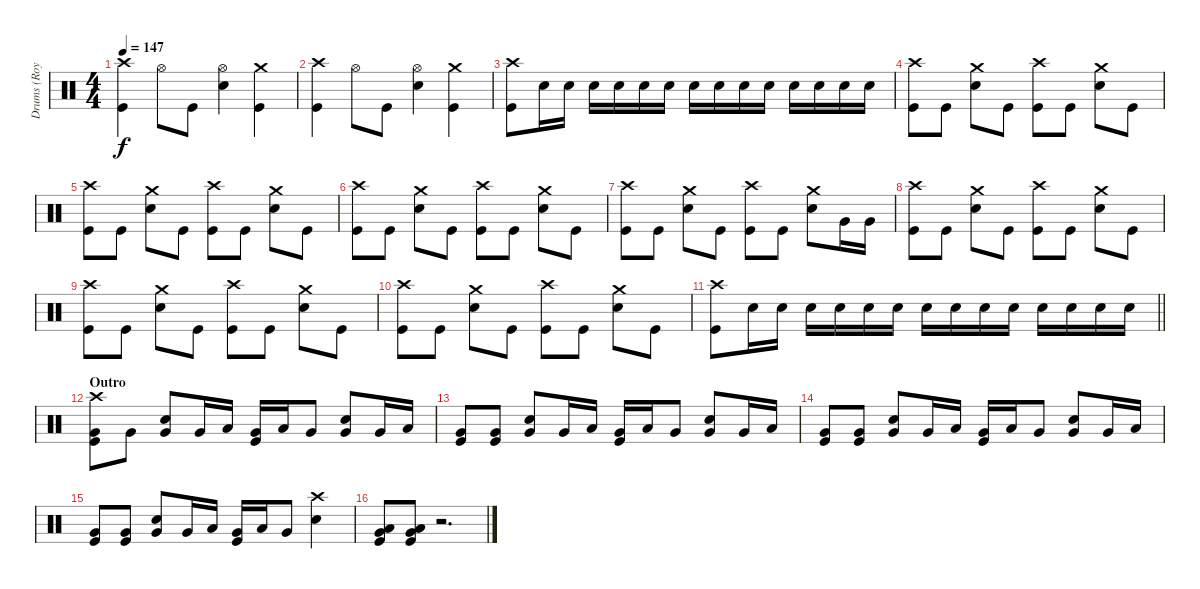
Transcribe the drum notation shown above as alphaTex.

\track ("Drums (Roy)" "Drums (Roy") {instrument percussion}
\staff {score}
\articulation defaults
\ts (4 4)
\tempo 147
\clef neutral
\ks c
("Crash high (hit)" "Kick (hit)").4{dy f} "Hi-Hat (open)".8 "Kick (hit)".8 ("Hi-Hat (open)" "Snare (hit) 2").4 ("Crash medium (hit)" "Kick (hit)").4 |
("Crash high (hit)" "Kick (hit)").4 "Hi-Hat (open)".8 "Kick (hit)".8 ("Hi-Hat (open)" "Snare (hit) 2").4 ("Crash medium (hit)" "Kick (hit)").4 |
("Crash high (hit)" "Kick (hit)").8 "Snare (hit) 2".16 "Snare (hit) 2".16 "Snare (hit) 2".16 "Snare (hit) 2".16 "Snare (hit) 2".16 "Snare (hit) 2".16 "Snare (hit) 2".16 "Snare (hit) 2".16 "Snare (hit) 2".16 "Snare (hit) 2".16 "Snare (hit) 2".16 "Snare (hit) 2".16 "Snare (hit) 2".16 "Snare (hit) 2".16 |
("Crash high (hit)" "Kick (hit)").8 "Kick (hit)".8 ("Crash medium (hit)" "Snare (hit) 2").8 "Kick (hit)".8 ("Crash high (hit)" "Kick (hit)").8 "Kick (hit)".8 ("Crash medium (hit)" "Snare (hit) 2").8 "Kick (hit)".8 |
("Crash high (hit)" "Kick (hit)").8 "Kick (hit)".8 ("Crash medium (hit)" "Snare (hit) 2").8 "Kick (hit)".8 ("Crash high (hit)" "Kick (hit)").8 "Kick (hit)".8 ("Crash medium (hit)" "Snare (hit) 2").8 "Kick (hit)".8 |
("Crash high (hit)" "Kick (hit)").8 "Kick (hit)".8 ("Crash medium (hit)" "Snare (hit) 2").8 "Kick (hit)".8 ("Crash high (hit)" "Kick (hit)").8 "Kick (hit)".8 ("Crash medium (hit)" "Snare (hit) 2").8 "Kick (hit)".8 |
("Crash high (hit)" "Kick (hit)").8 "Kick (hit)".8 ("Crash medium (hit)" "Snare (hit) 2").8 "Kick (hit)".8 ("Crash high (hit)" "Kick (hit)").8 "Kick (hit)".8 ("Crash medium (hit)" "Snare (hit) 2").8 "Very Low Tom (hit)".16 "Very Low Tom (hit)".16 |
("Crash high (hit)" "Kick (hit)").8 "Kick (hit)".8 ("Crash medium (hit)" "Snare (hit) 2").8 "Kick (hit)".8 ("Crash high (hit)" "Kick (hit)").8 "Kick (hit)".8 ("Crash medium (hit)" "Snare (hit) 2").8 "Kick (hit)".8 |
("Crash high (hit)" "Kick (hit)").8 "Kick (hit)".8 ("Crash medium (hit)" "Snare (hit) 2").8 "Kick (hit)".8 ("Crash high (hit)" "Kick (hit)").8 "Kick (hit)".8 ("Crash medium (hit)" "Snare (hit) 2").8 "Kick (hit)".8 |
("Crash high (hit)" "Kick (hit)").8 "Kick (hit)".8 ("Crash medium (hit)" "Snare (hit) 2").8 "Kick (hit)".8 ("Crash high (hit)" "Kick (hit)").8 "Kick (hit)".8 ("Crash medium (hit)" "Snare (hit) 2").8 "Kick (hit)".8 |
\barLineRight lightlight
("Crash high (hit)" "Kick (hit)").8 "Snare (hit) 2".16 "Snare (hit) 2".16 "Snare (hit) 2".16 "Snare (hit) 2".16 "Snare (hit) 2".16 "Snare (hit) 2".16 "Snare (hit) 2".16 "Snare (hit) 2".16 "Snare (hit) 2".16 "Snare (hit) 2".16 "Snare (hit) 2".16 "Snare (hit) 2".16 "Snare (hit) 2".16 "Snare (hit) 2".16 |
\section ("" "Outro")
("Crash high (hit)" "Very Low Tom (hit)" "Kick (hit)").8 "Very Low Tom (hit)".8 ("Very Low Tom (hit)" "Snare (hit) 2").8 "Very Low Tom (hit)".16 "Low Floor Tom (hit)".16 ("Very Low Tom (hit)" "Kick (hit)").16 "Low Floor Tom (hit)".16 "Very Low Tom (hit)".8 ("Very Low Tom (hit)" "Snare (hit) 2").8 "Very Low Tom (hit)".16 "Low Floor Tom (hit)".16 |
("Very Low Tom (hit)" "Kick (hit)").8 ("Very Low Tom (hit)" "Kick (hit)").8 ("Very Low Tom (hit)" "Snare (hit) 2").8 "Very Low Tom (hit)".16 "Low Floor Tom (hit)".16 ("Very Low Tom (hit)" "Kick (hit)").16 "Low Floor Tom (hit)".16 "Very Low Tom (hit)".8 ("Very Low Tom (hit)" "Snare (hit) 2").8 "Very Low Tom (hit)".16 "Low Floor Tom (hit)".16 |
("Very Low Tom (hit)" "Kick (hit)").8 ("Very Low Tom (hit)" "Kick (hit)").8 ("Very Low Tom (hit)" "Snare (hit) 2").8 "Very Low Tom (hit)".16 "Low Floor Tom (hit)".16 ("Very Low Tom (hit)" "Kick (hit)").16 "Low Floor Tom (hit)".16 "Very Low Tom (hit)".8 ("Very Low Tom (hit)" "Snare (hit) 2").8 "Very Low Tom (hit)".16 "Low Floor Tom (hit)".16 |
("Very Low Tom (hit)" "Kick (hit)").8 ("Very Low Tom (hit)" "Kick (hit)").8 ("Very Low Tom (hit)" "Snare (hit) 2").8 "Very Low Tom (hit)".16 "Low Floor Tom (hit)".16 ("Very Low Tom (hit)" "Kick (hit)").16 "Low Floor Tom (hit)".16 "Very Low Tom (hit)".8 ("Crash high (hit)" "Snare (hit) 2").4 |
("Very Low Tom (hit)" "Low Tom (hit)" "Kick (hit)").8 ("Very Low Tom (hit)" "Low Floor Tom (hit)" "Kick (hit)").8 r.2{d}
